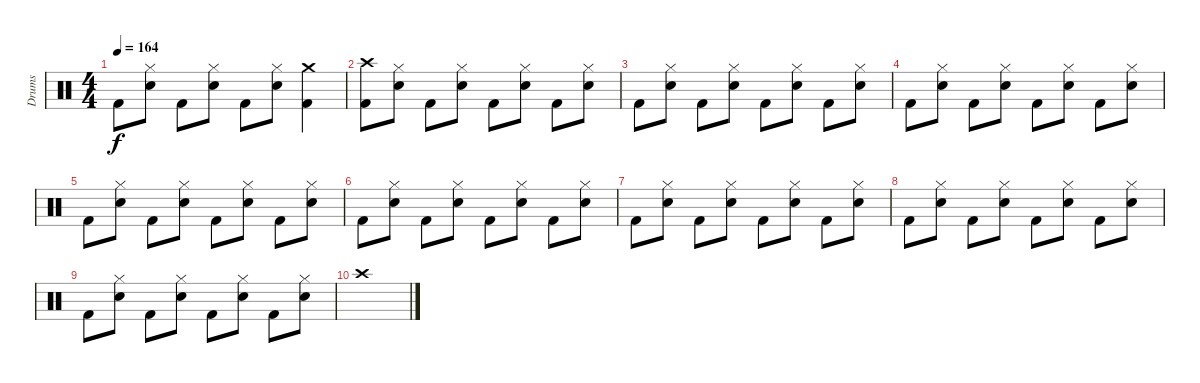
\track ("Drums" "Drums") {instrument percussion}
\staff {score}
\articulation defaults
\ts (4 4)
\tempo 164
\clef neutral
\ks c "Kick (hit) 2".8{dy f}
("Hi-Hat (closed)" "Electric Snare (hit)").8 "Kick (hit) 2".8 ("Hi-Hat (closed)" "Electric Snare (hit)").8 "Kick (hit) 2".8 ("Hi-Hat (closed)" "Electric Snare (hit)").8 ("Crash medium (hit)" "Kick (hit) 2").4 |
("Crash high (hit)" "Kick (hit) 2").8 ("Hi-Hat (closed)" "Electric Snare (hit)").8 "Kick (hit) 2".8 ("Hi-Hat (closed)" "Electric Snare (hit)").8 "Kick (hit) 2".8 ("Hi-Hat (closed)" "Electric Snare (hit)").8 "Kick (hit) 2".8 ("Hi-Hat (closed)" "Electric Snare (hit)").8 |
"Kick (hit) 2".8 ("Hi-Hat (closed)" "Electric Snare (hit)").8 "Kick (hit) 2".8 ("Hi-Hat (closed)" "Electric Snare (hit)").8 "Kick (hit) 2".8 ("Hi-Hat (closed)" "Electric Snare (hit)").8 "Kick (hit) 2".8 ("Hi-Hat (closed)" "Electric Snare (hit)").8 |
"Kick (hit) 2".8 ("Hi-Hat (closed)" "Electric Snare (hit)").8 "Kick (hit) 2".8 ("Hi-Hat (closed)" "Electric Snare (hit)").8 "Kick (hit) 2".8 ("Hi-Hat (closed)" "Electric Snare (hit)").8 "Kick (hit) 2".8 ("Hi-Hat (closed)" "Electric Snare (hit)").8 |
"Kick (hit) 2".8 ("Hi-Hat (closed)" "Electric Snare (hit)").8 "Kick (hit) 2".8 ("Hi-Hat (closed)" "Electric Snare (hit)").8 "Kick (hit) 2".8 ("Hi-Hat (closed)" "Electric Snare (hit)").8 "Kick (hit) 2".8 ("Hi-Hat (closed)" "Electric Snare (hit)").8 |
"Kick (hit) 2".8 ("Hi-Hat (closed)" "Electric Snare (hit)").8 "Kick (hit) 2".8 ("Hi-Hat (closed)" "Electric Snare (hit)").8 "Kick (hit) 2".8 ("Hi-Hat (closed)" "Electric Snare (hit)").8 "Kick (hit) 2".8 ("Hi-Hat (closed)" "Electric Snare (hit)").8 |
"Kick (hit) 2".8 ("Hi-Hat (closed)" "Electric Snare (hit)").8 "Kick (hit) 2".8 ("Hi-Hat (closed)" "Electric Snare (hit)").8 "Kick (hit) 2".8 ("Hi-Hat (closed)" "Electric Snare (hit)").8 "Kick (hit) 2".8 ("Hi-Hat (closed)" "Electric Snare (hit)").8 |
"Kick (hit) 2".8 ("Hi-Hat (closed)" "Electric Snare (hit)").8 "Kick (hit) 2".8 ("Hi-Hat (closed)" "Electric Snare (hit)").8 "Kick (hit) 2".8 ("Hi-Hat (closed)" "Electric Snare (hit)").8 "Kick (hit) 2".8 ("Hi-Hat (closed)" "Electric Snare (hit)").8 |
"Kick (hit) 2".8 ("Hi-Hat (closed)" "Electric Snare (hit)").8 "Kick (hit) 2".8 ("Hi-Hat (closed)" "Electric Snare (hit)").8 "Kick (hit) 2".8 ("Hi-Hat (closed)" "Electric Snare (hit)").8 "Kick (hit) 2".8 ("Hi-Hat (closed)" "Electric Snare (hit)").8 |
"Crash high (hit)".1
